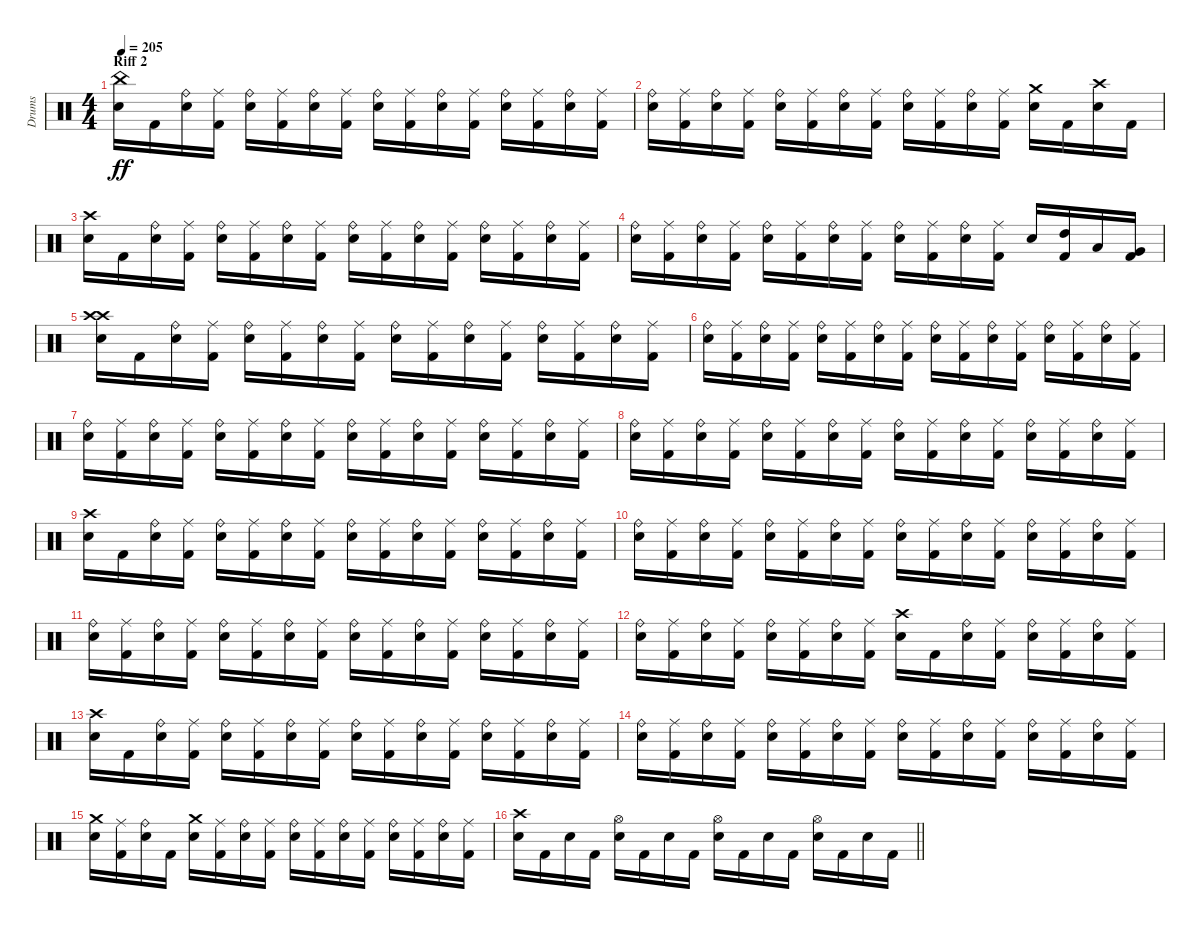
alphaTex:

\track ("Drums" "Drums") {instrument percussion}
\staff {score}
\articulation defaults
\ts (4 4)
\section ("" "Riff 2")
\tempo 205
\clef neutral
\ks c
("China (hit)" "Snare (hit) 2").16{dy ff} "Kick (hit) 2".16 ("Snare (hit) 2" "Ride (bell)").16 ("Kick (hit) 2" "Ride (middle)").16 ("Snare (hit) 2" "Ride (bell)").16 ("Kick (hit) 2" "Ride (middle)").16 ("Snare (hit) 2" "Ride (bell)").16 ("Kick (hit) 2" "Ride (middle)").16 ("Snare (hit) 2" "Ride (bell)").16 ("Kick (hit) 2" "Ride (middle)").16 ("Snare (hit) 2" "Ride (bell)").16 ("Kick (hit) 2" "Ride (middle)").16 ("Snare (hit) 2" "Ride (bell)").16 ("Kick (hit) 2" "Ride (middle)").16 ("Snare (hit) 2" "Ride (bell)").16 ("Kick (hit) 2" "Ride (middle)").16 |
("Snare (hit) 2" "Ride (bell)").16 ("Kick (hit) 2" "Ride (middle)").16 ("Snare (hit) 2" "Ride (bell)").16 ("Kick (hit) 2" "Ride (middle)").16 ("Snare (hit) 2" "Ride (bell)").16 ("Kick (hit) 2" "Ride (middle)").16 ("Snare (hit) 2" "Ride (bell)").16 ("Kick (hit) 2" "Ride (middle)").16 ("Snare (hit) 2" "Ride (bell)").16 ("Kick (hit) 2" "Ride (middle)").16 ("Snare (hit) 2" "Ride (bell)").16 ("Kick (hit) 2" "Ride (middle)").16 ("Crash medium (hit)" "Snare (hit) 2").16 "Kick (hit) 2".16 ("Crash high (hit)" "Snare (hit) 2").16 "Kick (hit) 2".16 |
("Snare (hit) 2" "Crash high (hit)").16 "Kick (hit) 2".16 ("Snare (hit) 2" "Ride (bell)").16 ("Kick (hit) 2" "Ride (middle)").16 ("Snare (hit) 2" "Ride (bell)").16 ("Kick (hit) 2" "Ride (middle)").16 ("Snare (hit) 2" "Ride (bell)").16 ("Kick (hit) 2" "Ride (middle)").16 ("Snare (hit) 2" "Ride (bell)").16 ("Kick (hit) 2" "Ride (middle)").16 ("Snare (hit) 2" "Ride (bell)").16 ("Kick (hit) 2" "Ride (middle)").16 ("Snare (hit) 2" "Ride (bell)").16 ("Kick (hit) 2" "Ride (middle)").16 ("Snare (hit) 2" "Ride (bell)").16 ("Kick (hit) 2" "Ride (middle)").16 |
("Snare (hit) 2" "Ride (bell)").16 ("Kick (hit) 2" "Ride (middle)").16 ("Snare (hit) 2" "Ride (bell)").16 ("Kick (hit) 2" "Ride (middle)").16 ("Snare (hit) 2" "Ride (bell)").16 ("Kick (hit) 2" "Ride (middle)").16 ("Snare (hit) 2" "Ride (bell)").16 ("Kick (hit) 2" "Ride (middle)").16 ("Snare (hit) 2" "Ride (bell)").16 ("Kick (hit) 2" "Ride (middle)").16 ("Snare (hit) 2" "Ride (bell)").16 ("Kick (hit) 2" "Ride (middle)").16 "Snare (hit) 2".16 ("Kick (hit) 2" "High Tom (hit)").16 "Low Tom (hit)".16 ("Kick (hit) 2" "Very Low Tom (hit)").16 |
("Crash high (hit)" "Crash high (hit)" "Snare (hit) 2").16 "Kick (hit) 2".16 ("Snare (hit) 2" "Ride (bell)").16 ("Kick (hit) 2" "Ride (middle)").16 ("Snare (hit) 2" "Ride (bell)").16 ("Kick (hit) 2" "Ride (middle)").16 ("Snare (hit) 2" "Ride (bell)").16 ("Kick (hit) 2" "Ride (middle)").16 ("Snare (hit) 2" "Ride (bell)").16 ("Kick (hit) 2" "Ride (middle)").16 ("Snare (hit) 2" "Ride (bell)").16 ("Kick (hit) 2" "Ride (middle)").16 ("Snare (hit) 2" "Ride (bell)").16 ("Kick (hit) 2" "Ride (middle)").16 ("Snare (hit) 2" "Ride (bell)").16 ("Kick (hit) 2" "Ride (middle)").16 |
("Snare (hit) 2" "Ride (bell)").16 ("Kick (hit) 2" "Ride (middle)").16 ("Snare (hit) 2" "Ride (bell)").16 ("Kick (hit) 2" "Ride (middle)").16 ("Snare (hit) 2" "Ride (bell)").16 ("Kick (hit) 2" "Ride (middle)").16 ("Snare (hit) 2" "Ride (bell)").16 ("Kick (hit) 2" "Ride (middle)").16 ("Snare (hit) 2" "Ride (bell)").16 ("Kick (hit) 2" "Ride (middle)").16 ("Snare (hit) 2" "Ride (bell)").16 ("Kick (hit) 2" "Ride (middle)").16 ("Snare (hit) 2" "Ride (bell)").16 ("Kick (hit) 2" "Ride (middle)").16 ("Snare (hit) 2" "Ride (bell)").16 ("Kick (hit) 2" "Ride (middle)").16 |
("Snare (hit) 2" "Ride (bell)").16 ("Kick (hit) 2" "Ride (middle)").16 ("Snare (hit) 2" "Ride (bell)").16 ("Kick (hit) 2" "Ride (middle)").16 ("Snare (hit) 2" "Ride (bell)").16 ("Kick (hit) 2" "Ride (middle)").16 ("Snare (hit) 2" "Ride (bell)").16 ("Kick (hit) 2" "Ride (middle)").16 ("Snare (hit) 2" "Ride (bell)").16 ("Kick (hit) 2" "Ride (middle)").16 ("Snare (hit) 2" "Ride (bell)").16 ("Kick (hit) 2" "Ride (middle)").16 ("Snare (hit) 2" "Ride (bell)").16 ("Kick (hit) 2" "Ride (middle)").16 ("Snare (hit) 2" "Ride (bell)").16 ("Kick (hit) 2" "Ride (middle)").16 |
("Snare (hit) 2" "Ride (bell)").16 ("Kick (hit) 2" "Ride (middle)").16 ("Snare (hit) 2" "Ride (bell)").16 ("Kick (hit) 2" "Ride (middle)").16 ("Snare (hit) 2" "Ride (bell)").16 ("Kick (hit) 2" "Ride (middle)").16 ("Snare (hit) 2" "Ride (bell)").16 ("Kick (hit) 2" "Ride (middle)").16 ("Snare (hit) 2" "Ride (bell)").16 ("Kick (hit) 2" "Ride (middle)").16 ("Snare (hit) 2" "Ride (bell)").16 ("Kick (hit) 2" "Ride (middle)").16 ("Snare (hit) 2" "Ride (bell)").16 ("Kick (hit) 2" "Ride (middle)").16 ("Snare (hit) 2" "Ride (bell)").16 ("Kick (hit) 2" "Ride (middle)").16 |
("Crash high (hit)" "Snare (hit) 2").16 "Kick (hit) 2".16 ("Snare (hit) 2" "Ride (bell)").16 ("Kick (hit) 2" "Ride (middle)").16 ("Snare (hit) 2" "Ride (bell)").16 ("Kick (hit) 2" "Ride (middle)").16 ("Snare (hit) 2" "Ride (bell)").16 ("Kick (hit) 2" "Ride (middle)").16 ("Snare (hit) 2" "Ride (bell)").16 ("Kick (hit) 2" "Ride (middle)").16 ("Snare (hit) 2" "Ride (bell)").16 ("Kick (hit) 2" "Ride (middle)").16 ("Snare (hit) 2" "Ride (bell)").16 ("Kick (hit) 2" "Ride (middle)").16 ("Snare (hit) 2" "Ride (bell)").16 ("Kick (hit) 2" "Ride (middle)").16 |
("Snare (hit) 2" "Ride (bell)").16 ("Kick (hit) 2" "Ride (middle)").16 ("Snare (hit) 2" "Ride (bell)").16 ("Kick (hit) 2" "Ride (middle)").16 ("Snare (hit) 2" "Ride (bell)").16 ("Kick (hit) 2" "Ride (middle)").16 ("Snare (hit) 2" "Ride (bell)").16 ("Kick (hit) 2" "Ride (middle)").16 ("Snare (hit) 2" "Ride (bell)").16 ("Kick (hit) 2" "Ride (middle)").16 ("Snare (hit) 2" "Ride (bell)").16 ("Kick (hit) 2" "Ride (middle)").16 ("Snare (hit) 2" "Ride (bell)").16 ("Kick (hit) 2" "Ride (middle)").16 ("Snare (hit) 2" "Ride (bell)").16 ("Kick (hit) 2" "Ride (middle)").16 |
("Snare (hit) 2" "Ride (bell)").16 ("Kick (hit) 2" "Ride (middle)").16 ("Snare (hit) 2" "Ride (bell)").16 ("Kick (hit) 2" "Ride (middle)").16 ("Snare (hit) 2" "Ride (bell)").16 ("Kick (hit) 2" "Ride (middle)").16 ("Snare (hit) 2" "Ride (bell)").16 ("Kick (hit) 2" "Ride (middle)").16 ("Snare (hit) 2" "Ride (bell)").16 ("Kick (hit) 2" "Ride (middle)").16 ("Snare (hit) 2" "Ride (bell)").16 ("Kick (hit) 2" "Ride (middle)").16 ("Snare (hit) 2" "Ride (bell)").16 ("Kick (hit) 2" "Ride (middle)").16 ("Snare (hit) 2" "Ride (bell)").16 ("Kick (hit) 2" "Ride (middle)").16 |
("Snare (hit) 2" "Ride (bell)").16 ("Kick (hit) 2" "Ride (middle)").16 ("Snare (hit) 2" "Ride (bell)").16 ("Kick (hit) 2" "Ride (middle)").16 ("Snare (hit) 2" "Ride (bell)").16 ("Kick (hit) 2" "Ride (middle)").16 ("Snare (hit) 2" "Ride (bell)").16 ("Kick (hit) 2" "Ride (middle)").16 ("Crash high (hit)" "Snare (hit) 2").16 "Kick (hit) 2".16 ("Snare (hit) 2" "Ride (bell)").16 ("Kick (hit) 2" "Ride (middle)").16 ("Snare (hit) 2" "Ride (bell)").16 ("Kick (hit) 2" "Ride (middle)").16 ("Snare (hit) 2" "Ride (bell)").16 ("Kick (hit) 2" "Ride (middle)").16 |
("Snare (hit) 2" "Crash high (hit)").16 "Kick (hit) 2".16 ("Snare (hit) 2" "Ride (bell)").16 ("Kick (hit) 2" "Ride (middle)").16 ("Snare (hit) 2" "Ride (bell)").16 ("Kick (hit) 2" "Ride (middle)").16 ("Snare (hit) 2" "Ride (bell)").16 ("Kick (hit) 2" "Ride (middle)").16 ("Snare (hit) 2" "Ride (bell)").16 ("Kick (hit) 2" "Ride (middle)").16 ("Snare (hit) 2" "Ride (bell)").16 ("Kick (hit) 2" "Ride (middle)").16 ("Snare (hit) 2" "Ride (bell)").16 ("Kick (hit) 2" "Ride (middle)").16 ("Snare (hit) 2" "Ride (bell)").16 ("Kick (hit) 2" "Ride (middle)").16 |
("Snare (hit) 2" "Ride (bell)").16 ("Kick (hit) 2" "Ride (middle)").16 ("Snare (hit) 2" "Ride (bell)").16 ("Kick (hit) 2" "Ride (middle)").16 ("Snare (hit) 2" "Ride (bell)").16 ("Kick (hit) 2" "Ride (middle)").16 ("Snare (hit) 2" "Ride (bell)").16 ("Kick (hit) 2" "Ride (middle)").16 ("Snare (hit) 2" "Ride (bell)").16 ("Kick (hit) 2" "Ride (middle)").16 ("Snare (hit) 2" "Ride (bell)").16 ("Kick (hit) 2" "Ride (middle)").16 ("Snare (hit) 2" "Ride (bell)").16 ("Kick (hit) 2" "Ride (middle)").16 ("Snare (hit) 2" "Ride (bell)").16 ("Kick (hit) 2" "Ride (middle)").16 |
("Crash medium (hit)" "Snare (hit) 2").16 ("Kick (hit) 2" "Ride (middle)").16 ("Snare (hit) 2" "Ride (bell)").16 "Kick (hit) 2".16 ("Crash medium (hit)" "Snare (hit) 2").16 ("Kick (hit) 2" "Ride (middle)").16 ("Snare (hit) 2" "Ride (bell)").16 ("Kick (hit) 2" "Ride (middle)").16 ("Snare (hit) 2" "Ride (bell)").16 ("Kick (hit) 2" "Ride (middle)").16 ("Snare (hit) 2" "Ride (bell)").16 ("Kick (hit) 2" "Ride (middle)").16 ("Snare (hit) 2" "Ride (bell)").16 ("Kick (hit) 2" "Ride (middle)").16 ("Snare (hit) 2" "Ride (bell)").16 ("Kick (hit) 2" "Ride (middle)").16 |
\barLineRight lightlight
("Crash high (hit)" "Snare (hit) 2").16 "Kick (hit) 2".16 "Snare (hit) 2".16 "Kick (hit) 2".16 ("Hi-Hat (open)" "Snare (hit) 2").16 "Kick (hit) 2".16 "Snare (hit) 2".16 "Kick (hit) 2".16 ("Hi-Hat (open)" "Snare (hit) 2").16 "Kick (hit) 2".16 "Snare (hit) 2".16 "Kick (hit) 2".16 ("Hi-Hat (open)" "Snare (hit) 2").16 "Kick (hit) 2".16 "Snare (hit) 2".16 "Kick (hit) 2".16
